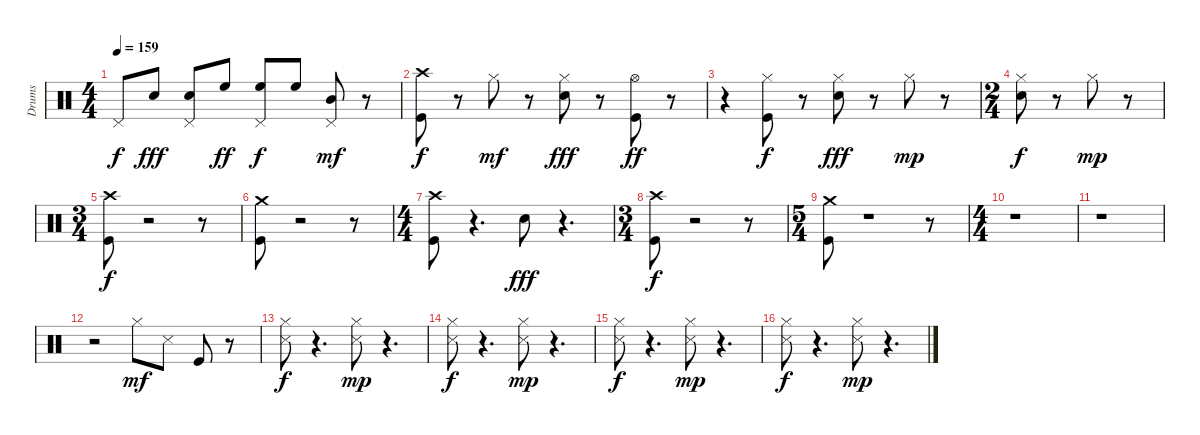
\track ("Drums" "Drums") {instrument percussion}
\staff {score}
\articulation defaults
\ts (4 4)
\tempo 159
\clef neutral
\ks c "Pedal Hi-Hat (hit)".8{dy f} "Electric Snare (hit)".8{dy fff}
("Electric Snare (hit)" "Pedal Hi-Hat (hit)").8 "High Floor Tom (hit)".8{dy ff} ("High Floor Tom (hit)" "Pedal Hi-Hat (hit)").8{dy f} "High Floor Tom (hit)".8 ("Mid Tom (hit)" "Pedal Hi-Hat (hit)").8{dy mf} r.8 |
("Kick (hit)" "Crash high (hit)").8{dy f} r.8 "Hi-Hat (closed)".8{dy mf} r.8 ("Electric Snare (hit)" "Hi-Hat (closed)").8{dy fff} r.8 ("Kick (hit)" "Hi-Hat (open)").8{dy ff} r.8 |
r.4 ("Kick (hit)" "Hi-Hat (closed)").8{dy f} r.8 ("Electric Snare (hit)" "Hi-Hat (closed)").8{dy fff} r.8 "Hi-Hat (closed)".8{dy mp} r.8 |
\ts (2 4)
("Electric Snare (hit)" "Hi-Hat (closed)").8{dy f} r.8 "Hi-Hat (closed)".8{dy mp} r.8 |
\ts (3 4)
("Kick (hit)" "Crash high (hit)").8{dy f} r.2 r.8 |
("Kick (hit)" "Crash medium (hit)").8 r.2 r.8 |
\ts (4 4)
("Kick (hit)" "Crash high (hit)").8 r.4{d} "Electric Snare (hit)".8{dy fff} r.4{d} |
\ts (3 4)
("Kick (hit)" "Crash high (hit)").8{dy f} r.2 r.8 |
\ts (5 4)
("Kick (hit)" "Crash medium (hit)").8 r.1 r.8 |
\ts (4 4)
r.1 |
r.1 |
r.2 "Hi-Hat (closed)".8{dy mf} "Snare (side stick) 3".8 "Kick (hit)".8 r.8 |
("Snare (side stick) 3" "Hi-Hat (closed)").8{dy f} r.4{d} ("Snare (side stick) 3" "Hi-Hat (closed)").8{dy mp} r.4{d} |
("Snare (side stick) 3" "Hi-Hat (closed)").8{dy f} r.4{d} ("Snare (side stick) 3" "Hi-Hat (closed)").8{dy mp} r.4{d} |
("Snare (side stick) 3" "Hi-Hat (closed)").8{dy f} r.4{d} ("Snare (side stick) 3" "Hi-Hat (closed)").8{dy mp} r.4{d} |
("Snare (side stick) 3" "Hi-Hat (closed)").8{dy f} r.4{d} ("Snare (side stick) 3" "Hi-Hat (closed)").8{dy mp} r.4{d}
